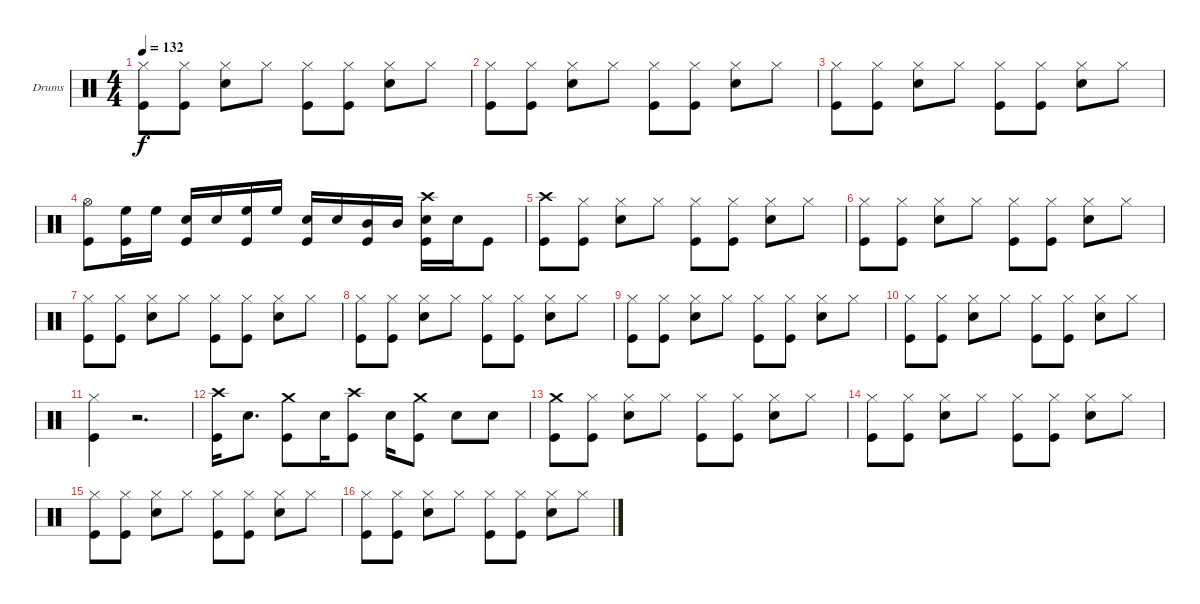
\bracketExtendMode groupsimilarinstruments
\firstSystemTrackNameOrientation horizontal
\otherSystemsTrackNameOrientation horizontal
\track ("Drumkit" "Drums") {instrument percussion}
\staff {score}
\articulation defaults
\ts (4 4)
\tempo 132
\clef neutral
\ks c
("Kick (hit)" "Hi-Hat (closed)").8{dy f} ("Kick (hit)" "Hi-Hat (closed)").8 ("Snare (hit) 2" "Hi-Hat (closed)").8 "Hi-Hat (closed)".8 ("Kick (hit)" "Hi-Hat (closed)").8 ("Kick (hit)" "Hi-Hat (closed)").8 ("Snare (hit) 2" "Hi-Hat (closed)").8 "Hi-Hat (closed)".8 |
("Kick (hit)" "Hi-Hat (closed)").8 ("Kick (hit)" "Hi-Hat (closed)").8 ("Snare (hit) 2" "Hi-Hat (closed)").8 "Hi-Hat (closed)".8 ("Kick (hit)" "Hi-Hat (closed)").8 ("Kick (hit)" "Hi-Hat (closed)").8 ("Snare (hit) 2" "Hi-Hat (closed)").8 "Hi-Hat (closed)".8 |
("Kick (hit)" "Hi-Hat (closed)").8 ("Kick (hit)" "Hi-Hat (closed)").8 ("Snare (hit) 2" "Hi-Hat (closed)").8 "Hi-Hat (closed)".8 ("Kick (hit)" "Hi-Hat (closed)").8 ("Kick (hit)" "Hi-Hat (closed)").8 ("Snare (hit) 2" "Hi-Hat (closed)").8 "Hi-Hat (closed)".8 |
("Kick (hit)" "Hi-Hat (open)").8 ("Kick (hit)" "High Floor Tom (hit)").16 "High Floor Tom (hit)".16 ("Kick (hit)" "Snare (hit) 2").16 "Snare (hit) 2".16 ("Kick (hit)" "High Floor Tom (hit)").16 "High Floor Tom (hit)".16 ("Kick (hit)" "Snare (hit) 2").16 "Snare (hit) 2".16 ("Kick (hit)" "Mid Tom (hit)").16 "Mid Tom (hit)".16 ("Kick (hit)" "Snare (hit) 2" "Crash high (hit)").16 "Snare (hit) 2".16 "Kick (hit)".8 |
("Kick (hit)" "Crash high (hit)").8 ("Kick (hit)" "Hi-Hat (closed)").8 ("Snare (hit) 2" "Hi-Hat (closed)").8 "Hi-Hat (closed)".8 ("Kick (hit)" "Hi-Hat (closed)").8 ("Kick (hit)" "Hi-Hat (closed)").8 ("Snare (hit) 2" "Hi-Hat (closed)").8 "Hi-Hat (closed)".8 |
("Kick (hit)" "Hi-Hat (closed)").8 ("Kick (hit)" "Hi-Hat (closed)").8 ("Snare (hit) 2" "Hi-Hat (closed)").8 "Hi-Hat (closed)".8 ("Kick (hit)" "Hi-Hat (closed)").8 ("Kick (hit)" "Hi-Hat (closed)").8 ("Snare (hit) 2" "Hi-Hat (closed)").8 "Hi-Hat (closed)".8 |
("Kick (hit)" "Hi-Hat (closed)").8 ("Kick (hit)" "Hi-Hat (closed)").8 ("Snare (hit) 2" "Hi-Hat (closed)").8 "Hi-Hat (closed)".8 ("Kick (hit)" "Hi-Hat (closed)").8 ("Kick (hit)" "Hi-Hat (closed)").8 ("Snare (hit) 2" "Hi-Hat (closed)").8 "Hi-Hat (closed)".8 |
("Kick (hit)" "Hi-Hat (closed)").8 ("Kick (hit)" "Hi-Hat (closed)").8 ("Snare (hit) 2" "Hi-Hat (closed)").8 "Hi-Hat (closed)".8 ("Kick (hit)" "Hi-Hat (closed)").8 ("Kick (hit)" "Hi-Hat (closed)").8 ("Snare (hit) 2" "Hi-Hat (closed)").8 "Hi-Hat (closed)".8 |
("Kick (hit)" "Hi-Hat (closed)").8 ("Kick (hit)" "Hi-Hat (closed)").8 ("Snare (hit) 2" "Hi-Hat (closed)").8 "Hi-Hat (closed)".8 ("Kick (hit)" "Hi-Hat (closed)").8 ("Kick (hit)" "Hi-Hat (closed)").8 ("Snare (hit) 2" "Hi-Hat (closed)").8 "Hi-Hat (closed)".8 |
("Kick (hit)" "Hi-Hat (closed)").8 ("Kick (hit)" "Hi-Hat (closed)").8 ("Snare (hit) 2" "Hi-Hat (closed)").8 "Hi-Hat (closed)".8 ("Kick (hit)" "Hi-Hat (closed)").8 ("Kick (hit)" "Hi-Hat (closed)").8 ("Snare (hit) 2" "Hi-Hat (closed)").8 "Hi-Hat (closed)".8 |
("Kick (hit)" "Hi-Hat (closed)").4 r.2{d} |
("Kick (hit)" "Crash high (hit)").16 "Snare (hit) 2".8{d} ("Kick (hit)" "Crash medium (hit)").8 "Snare (hit) 2".16 ("Kick (hit)" "Crash high (hit)").8 "Snare (hit) 2".16 ("Kick (hit)" "Crash medium (hit)").8 "Snare (hit) 2".8 "Snare (hit) 2".8 |
("Kick (hit)" "Crash medium (hit)").8 ("Kick (hit)" "Hi-Hat (closed)").8 ("Snare (hit) 2" "Hi-Hat (closed)").8 "Hi-Hat (closed)".8 ("Kick (hit)" "Hi-Hat (closed)").8 ("Kick (hit)" "Hi-Hat (closed)").8 ("Snare (hit) 2" "Hi-Hat (closed)").8 "Hi-Hat (closed)".8 |
("Kick (hit)" "Hi-Hat (closed)").8 ("Kick (hit)" "Hi-Hat (closed)").8 ("Snare (hit) 2" "Hi-Hat (closed)").8 "Hi-Hat (closed)".8 ("Kick (hit)" "Hi-Hat (closed)").8 ("Kick (hit)" "Hi-Hat (closed)").8 ("Snare (hit) 2" "Hi-Hat (closed)").8 "Hi-Hat (closed)".8 |
("Kick (hit)" "Hi-Hat (closed)").8 ("Kick (hit)" "Hi-Hat (closed)").8 ("Snare (hit) 2" "Hi-Hat (closed)").8 "Hi-Hat (closed)".8 ("Kick (hit)" "Hi-Hat (closed)").8 ("Kick (hit)" "Hi-Hat (closed)").8 ("Snare (hit) 2" "Hi-Hat (closed)").8 "Hi-Hat (closed)".8 |
("Kick (hit)" "Hi-Hat (closed)").8 ("Kick (hit)" "Hi-Hat (closed)").8 ("Snare (hit) 2" "Hi-Hat (closed)").8 "Hi-Hat (closed)".8 ("Kick (hit)" "Hi-Hat (closed)").8 ("Kick (hit)" "Hi-Hat (closed)").8 ("Snare (hit) 2" "Hi-Hat (closed)").8 "Hi-Hat (closed)".8
